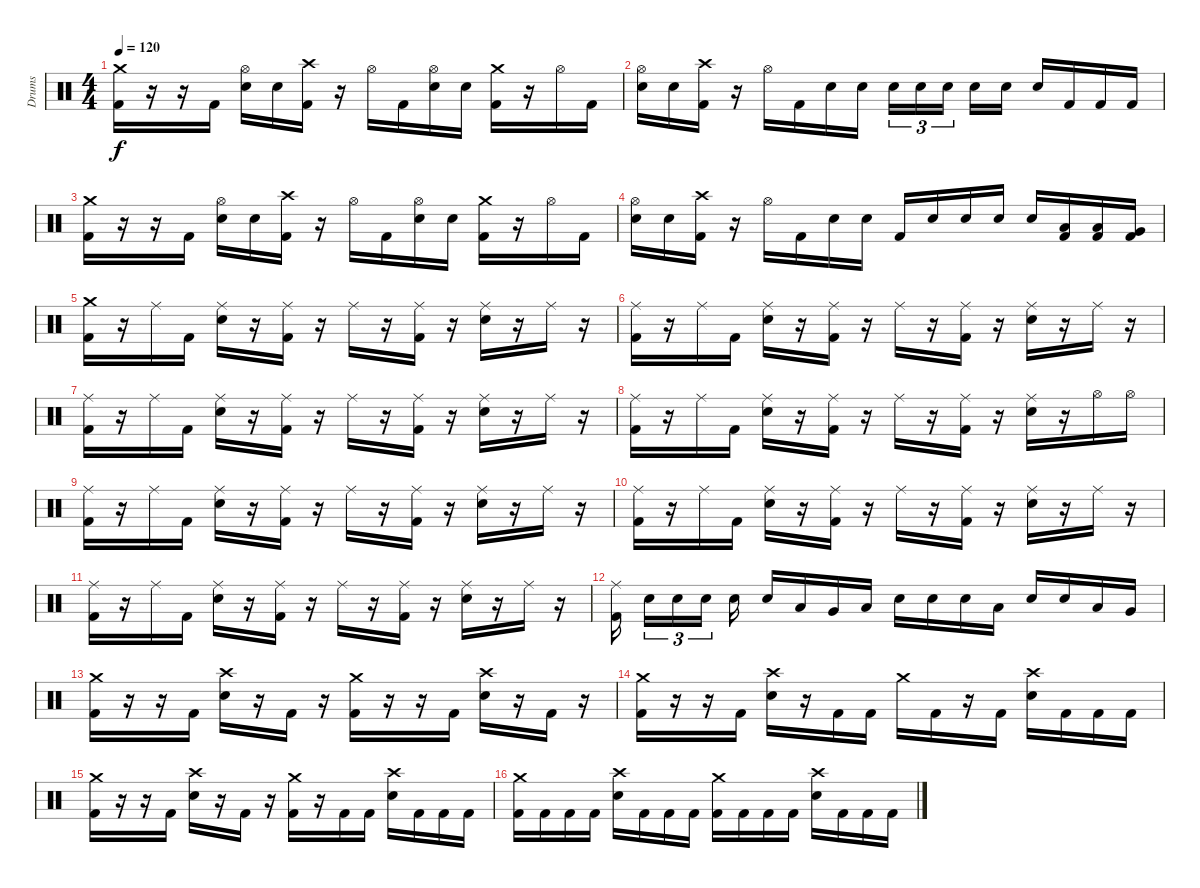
\track ("Drums" "Drums") {instrument percussion}
\staff {score}
\articulation defaults
\ts (4 4)
\tempo 120
\clef neutral
\ks c
("Crash medium (hit)" "Kick (hit) 2").16{dy f} r.16 r.16 "Kick (hit) 2".16 ("Hi-Hat (open)" "Electric Snare (hit)").16 "Electric Snare (hit)".16 ("Crash high (hit)" "Kick (hit) 2").16 r.16 "Hi-Hat (open)".16 "Kick (hit) 2".16 ("Hi-Hat (open)" "Electric Snare (hit)").16 "Electric Snare (hit)".16 ("Crash medium (hit)" "Kick (hit) 2").16 r.16 "Hi-Hat (open)".16 "Kick (hit) 2".16 |
("Hi-Hat (open)" "Electric Snare (hit)").16 "Electric Snare (hit)".16 ("Crash high (hit)" "Kick (hit) 2").16 r.16 "Hi-Hat (open)".16 "Kick (hit) 2".16 "Electric Snare (hit)".16 "Electric Snare (hit)".16 "Electric Snare (hit)".16{tu (3 2)} "Electric Snare (hit)".16{tu (3 2)} "Electric Snare (hit)".16{tu (3 2)} "Electric Snare (hit)".16 "Electric Snare (hit)".16 "Electric Snare (hit)".16 "Kick (hit) 2".16 "Kick (hit) 2".16 "Kick (hit) 2".16 |
("Crash medium (hit)" "Kick (hit) 2").16 r.16 r.16 "Kick (hit) 2".16 ("Hi-Hat (open)" "Electric Snare (hit)").16 "Electric Snare (hit)".16 ("Crash high (hit)" "Kick (hit) 2").16 r.16 "Hi-Hat (open)".16 "Kick (hit) 2".16 ("Hi-Hat (open)" "Electric Snare (hit)").16 "Electric Snare (hit)".16 ("Crash medium (hit)" "Kick (hit) 2").16 r.16 "Hi-Hat (open)".16 "Kick (hit) 2".16 |
("Hi-Hat (open)" "Electric Snare (hit)").16 "Electric Snare (hit)".16 ("Crash high (hit)" "Kick (hit) 2").16 r.16 "Hi-Hat (open)".16 "Kick (hit) 2".16 "Electric Snare (hit)".16 "Electric Snare (hit)".16 "Kick (hit) 2".16 "Electric Snare (hit)".16 "Electric Snare (hit)".16 "Electric Snare (hit)".16 "Electric Snare (hit)".16 ("Low Tom (hit)" "Kick (hit) 2").16 ("Low Tom (hit)" "Kick (hit) 2").16 ("Very Low Tom (hit)" "Kick (hit) 2").16 |
\section ("" "")
("Crash medium (hit)" "Kick (hit) 2").16 r.16 "Ride (middle)".16 "Kick (hit) 2".16 ("Ride (middle)" "Electric Snare (hit)").16 r.16 ("Ride (middle)" "Kick (hit) 2").16 r.16 "Ride (middle)".16 r.16 ("Ride (middle)" "Kick (hit) 2").16 r.16 ("Ride (middle)" "Electric Snare (hit)").16 r.16 "Ride (middle)".16 r.16 |
("Ride (middle)" "Kick (hit) 2").16 r.16 "Ride (middle)".16 "Kick (hit) 2".16 ("Ride (middle)" "Electric Snare (hit)").16 r.16 ("Ride (middle)" "Kick (hit) 2").16 r.16 "Ride (middle)".16 r.16 ("Ride (middle)" "Kick (hit) 2").16 r.16 ("Ride (middle)" "Electric Snare (hit)").16 r.16 "Ride (middle)".16 r.16 |
("Ride (middle)" "Kick (hit) 2").16 r.16 "Ride (middle)".16 "Kick (hit) 2".16 ("Ride (middle)" "Electric Snare (hit)").16 r.16 ("Ride (middle)" "Kick (hit) 2").16 r.16 "Ride (middle)".16 r.16 ("Ride (middle)" "Kick (hit) 2").16 r.16 ("Ride (middle)" "Electric Snare (hit)").16 r.16 "Ride (middle)".16 r.16 |
("Ride (middle)" "Kick (hit) 2").16 r.16 "Ride (middle)".16 "Kick (hit) 2".16 ("Ride (middle)" "Electric Snare (hit)").16 r.16 ("Ride (middle)" "Kick (hit) 2").16 r.16 "Ride (middle)".16 r.16 ("Ride (middle)" "Kick (hit) 2").16 r.16 ("Ride (middle)" "Electric Snare (hit)").16 r.16 "Hi-Hat (open)".16 "Hi-Hat (open)".16 |
("Ride (middle)" "Kick (hit) 2").16 r.16 "Ride (middle)".16 "Kick (hit) 2".16 ("Ride (middle)" "Electric Snare (hit)").16 r.16 ("Ride (middle)" "Kick (hit) 2").16 r.16 "Ride (middle)".16 r.16 ("Ride (middle)" "Kick (hit) 2").16 r.16 ("Ride (middle)" "Electric Snare (hit)").16 r.16 "Ride (middle)".16 r.16 |
("Ride (middle)" "Kick (hit) 2").16 r.16 "Ride (middle)".16 "Kick (hit) 2".16 ("Ride (middle)" "Electric Snare (hit)").16 r.16 ("Ride (middle)" "Kick (hit) 2").16 r.16 "Ride (middle)".16 r.16 ("Ride (middle)" "Kick (hit) 2").16 r.16 ("Ride (middle)" "Electric Snare (hit)").16 r.16 "Ride (middle)".16 r.16 |
("Ride (middle)" "Kick (hit) 2").16 r.16 "Ride (middle)".16 "Kick (hit) 2".16 ("Ride (middle)" "Electric Snare (hit)").16 r.16 ("Ride (middle)" "Kick (hit) 2").16 r.16 "Ride (middle)".16 r.16 ("Ride (middle)" "Kick (hit) 2").16 r.16 ("Ride (middle)" "Electric Snare (hit)").16 r.16 "Ride (middle)".16 r.16 |
("Ride (middle)" "Kick (hit) 2").16 "Electric Snare (hit)".16{tu (3 2)} "Electric Snare (hit)".16{tu (3 2)} "Electric Snare (hit)".16{tu (3 2)} "Electric Snare (hit)".16 "Electric Snare (hit)".16 "Low Tom (hit)".16 "Very Low Tom (hit)".16 "Low Floor Tom (hit)".16 "Electric Snare (hit)".16 "Electric Snare (hit)".16 "Electric Snare (hit)".16 "Low Floor Tom (hit)".16 "Electric Snare (hit)".16 "Electric Snare (hit)".16 "Low Tom (hit)".16 "Very Low Tom (hit)".16 |
\section ("" "")
("Crash medium (hit)" "Kick (hit) 2").16 r.16 r.16 "Kick (hit) 2".16 ("Crash high (hit)" "Electric Snare (hit)").16 r.16 "Kick (hit) 2".16 r.16 ("Crash medium (hit)" "Kick (hit) 2").16 r.16 r.16 "Kick (hit) 2".16 ("Crash high (hit)" "Electric Snare (hit)").16 r.16 "Kick (hit) 2".16 r.16 |
("Crash medium (hit)" "Kick (hit) 2").16 r.16 r.16 "Kick (hit) 2".16 ("Crash high (hit)" "Electric Snare (hit)").16 r.16 "Kick (hit) 2".16 "Kick (hit) 2".16 "Crash medium (hit)".16 "Kick (hit) 2".16 r.16 "Kick (hit) 2".16 ("Crash high (hit)" "Electric Snare (hit)").16 "Kick (hit) 2".16 "Kick (hit) 2".16 "Kick (hit) 2".16 |
("Crash medium (hit)" "Kick (hit) 2").16 r.16 r.16 "Kick (hit) 2".16 ("Crash high (hit)" "Electric Snare (hit)").16 r.16 "Kick (hit) 2".16 r.16 ("Crash medium (hit)" "Kick (hit) 2").16 r.16 "Kick (hit) 2".16 "Kick (hit) 2".16 ("Crash high (hit)" "Electric Snare (hit)").16 "Kick (hit) 2".16 "Kick (hit) 2".16 "Kick (hit) 2".16 |
("Crash medium (hit)" "Kick (hit) 2").16 "Kick (hit) 2".16 "Kick (hit) 2".16 "Kick (hit) 2".16 ("Crash high (hit)" "Electric Snare (hit)").16 "Kick (hit) 2".16 "Kick (hit) 2".16 "Kick (hit) 2".16 ("Crash medium (hit)" "Kick (hit) 2").16 "Kick (hit) 2".16 "Kick (hit) 2".16 "Kick (hit) 2".16 ("Crash high (hit)" "Electric Snare (hit)").16 "Kick (hit) 2".16 "Kick (hit) 2".16 "Kick (hit) 2".16
